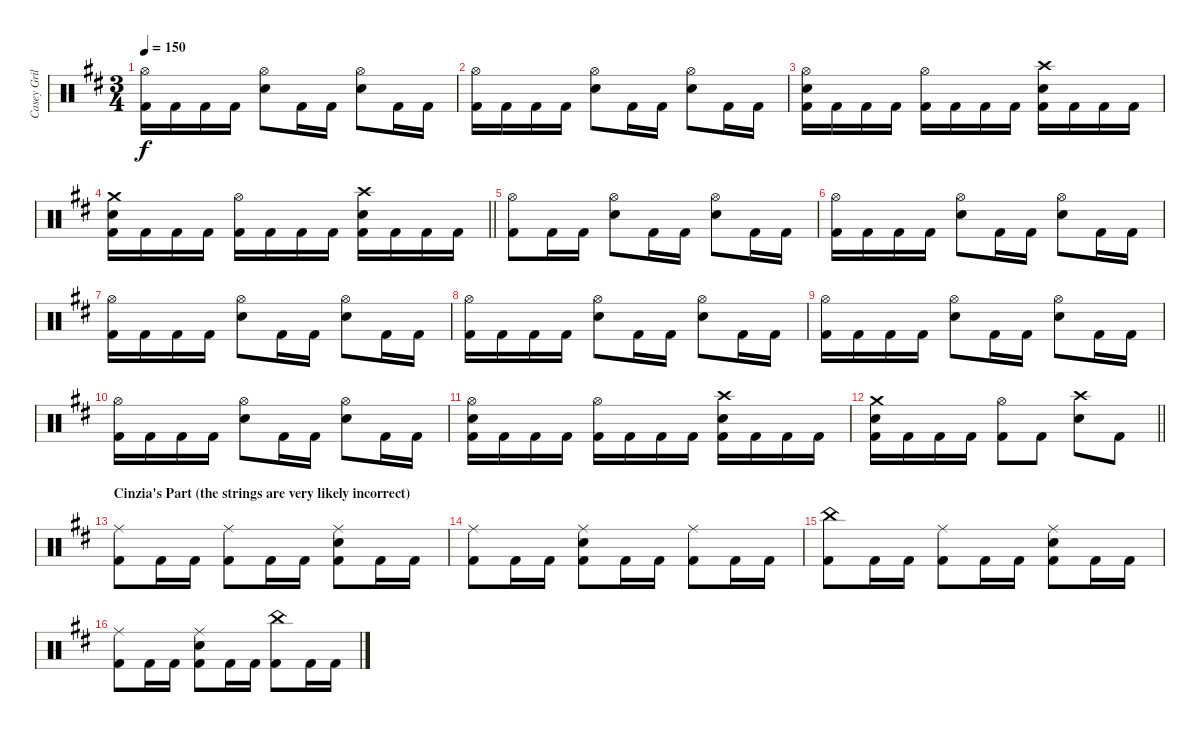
\track ("Casey Grillo" "Casey Gril") {instrument percussion}
\staff {score}
\articulation defaults
\ts (3 4)
\tempo 150
\clef neutral
\ks bminor
("Hi-Hat (open)" "Kick (hit) 2").16{dy f} "Kick (hit) 2".16 "Kick (hit) 2".16 "Kick (hit) 2".16 ("Hi-Hat (open)" "Electric Snare (hit)").8 "Kick (hit) 2".16 "Kick (hit) 2".16 ("Hi-Hat (open)" "Electric Snare (hit)").8 "Kick (hit) 2".16 "Kick (hit) 2".16 |
("Hi-Hat (open)" "Kick (hit) 2").16 "Kick (hit) 2".16 "Kick (hit) 2".16 "Kick (hit) 2".16 ("Hi-Hat (open)" "Electric Snare (hit)").8 "Kick (hit) 2".16 "Kick (hit) 2".16 ("Hi-Hat (open)" "Electric Snare (hit)").8 "Kick (hit) 2".16 "Kick (hit) 2".16 |
("Hi-Hat (open)" "Electric Snare (hit)" "Kick (hit) 2").16 "Kick (hit) 2".16 "Kick (hit) 2".16 "Kick (hit) 2".16 ("Hi-Hat (open)" "Kick (hit) 2").16 "Kick (hit) 2".16 "Kick (hit) 2".16 "Kick (hit) 2".16 ("Crash high (hit)" "Electric Snare (hit)" "Kick (hit) 2").16 "Kick (hit) 2".16 "Kick (hit) 2".16 "Kick (hit) 2".16 |
\barLineRight lightlight
("Crash medium (hit)" "Electric Snare (hit)" "Kick (hit) 2").16 "Kick (hit) 2".16 "Kick (hit) 2".16 "Kick (hit) 2".16 ("Hi-Hat (open)" "Kick (hit) 2").16 "Kick (hit) 2".16 "Kick (hit) 2".16 "Kick (hit) 2".16 ("Crash high (hit)" "Electric Snare (hit)" "Kick (hit) 2").16 "Kick (hit) 2".16 "Kick (hit) 2".16 "Kick (hit) 2".16 |
("Hi-Hat (open)" "Kick (hit) 2").8 "Kick (hit) 2".16 "Kick (hit) 2".16 ("Hi-Hat (open)" "Electric Snare (hit)").8 "Kick (hit) 2".16 "Kick (hit) 2".16 ("Hi-Hat (open)" "Electric Snare (hit)").8 "Kick (hit) 2".16 "Kick (hit) 2".16 |
("Hi-Hat (open)" "Kick (hit) 2").16 "Kick (hit) 2".16 "Kick (hit) 2".16 "Kick (hit) 2".16 ("Hi-Hat (open)" "Electric Snare (hit)").8 "Kick (hit) 2".16 "Kick (hit) 2".16 ("Hi-Hat (open)" "Electric Snare (hit)").8 "Kick (hit) 2".16 "Kick (hit) 2".16 |
("Hi-Hat (open)" "Kick (hit) 2").16 "Kick (hit) 2".16 "Kick (hit) 2".16 "Kick (hit) 2".16 ("Hi-Hat (open)" "Electric Snare (hit)").8 "Kick (hit) 2".16 "Kick (hit) 2".16 ("Hi-Hat (open)" "Electric Snare (hit)").8 "Kick (hit) 2".16 "Kick (hit) 2".16 |
("Hi-Hat (open)" "Kick (hit) 2").16 "Kick (hit) 2".16 "Kick (hit) 2".16 "Kick (hit) 2".16 ("Hi-Hat (open)" "Electric Snare (hit)").8 "Kick (hit) 2".16 "Kick (hit) 2".16 ("Hi-Hat (open)" "Electric Snare (hit)").8 "Kick (hit) 2".16 "Kick (hit) 2".16 |
("Hi-Hat (open)" "Kick (hit) 2").16 "Kick (hit) 2".16 "Kick (hit) 2".16 "Kick (hit) 2".16 ("Hi-Hat (open)" "Electric Snare (hit)").8 "Kick (hit) 2".16 "Kick (hit) 2".16 ("Hi-Hat (open)" "Electric Snare (hit)").8 "Kick (hit) 2".16 "Kick (hit) 2".16 |
("Hi-Hat (open)" "Kick (hit) 2").16 "Kick (hit) 2".16 "Kick (hit) 2".16 "Kick (hit) 2".16 ("Hi-Hat (open)" "Electric Snare (hit)").8 "Kick (hit) 2".16 "Kick (hit) 2".16 ("Hi-Hat (open)" "Electric Snare (hit)").8 "Kick (hit) 2".16 "Kick (hit) 2".16 |
("Hi-Hat (open)" "Electric Snare (hit)" "Kick (hit) 2").16 "Kick (hit) 2".16 "Kick (hit) 2".16 "Kick (hit) 2".16 ("Hi-Hat (open)" "Kick (hit) 2").16 "Kick (hit) 2".16 "Kick (hit) 2".16 "Kick (hit) 2".16 ("Crash high (hit)" "Electric Snare (hit)" "Kick (hit) 2").16 "Kick (hit) 2".16 "Kick (hit) 2".16 "Kick (hit) 2".16 |
\barLineRight lightlight
("Crash medium (hit)" "Electric Snare (hit)" "Kick (hit) 2").16 "Kick (hit) 2".16 "Kick (hit) 2".16 "Kick (hit) 2".16 ("Hi-Hat (open)" "Kick (hit) 2").8 "Kick (hit) 2".8 ("Crash high (hit)" "Electric Snare (hit)").8 "Kick (hit) 2".8 |
\section ("" "Cinzia's Part (the strings are very likely incorrect)")
("Ride (middle)" "Kick (hit) 2").8 "Kick (hit) 2".16 "Kick (hit) 2".16 ("Ride (middle)" "Kick (hit) 2").8 "Kick (hit) 2".16 "Kick (hit) 2".16 ("Ride (middle)" "Electric Snare (hit)" "Kick (hit) 2").8 "Kick (hit) 2".16 "Kick (hit) 2".16 |
("Ride (middle)" "Kick (hit) 2").8 "Kick (hit) 2".16 "Kick (hit) 2".16 ("Ride (middle)" "Electric Snare (hit)" "Kick (hit) 2").8 "Kick (hit) 2".16 "Kick (hit) 2".16 ("Ride (middle)" "Kick (hit) 2").8 "Kick (hit) 2".16 "Kick (hit) 2".16 |
("China (hit)" "Kick (hit) 2").8 "Kick (hit) 2".16 "Kick (hit) 2".16 ("Ride (middle)" "Kick (hit) 2").8 "Kick (hit) 2".16 "Kick (hit) 2".16 ("Ride (middle)" "Electric Snare (hit)" "Kick (hit) 2").8 "Kick (hit) 2".16 "Kick (hit) 2".16 |
("Ride (middle)" "Kick (hit) 2").8 "Kick (hit) 2".16 "Kick (hit) 2".16 ("Ride (middle)" "Electric Snare (hit)" "Kick (hit) 2").8 "Kick (hit) 2".16 "Kick (hit) 2".16 ("China (hit)" "Kick (hit) 2").8 "Kick (hit) 2".16 "Kick (hit) 2".16
